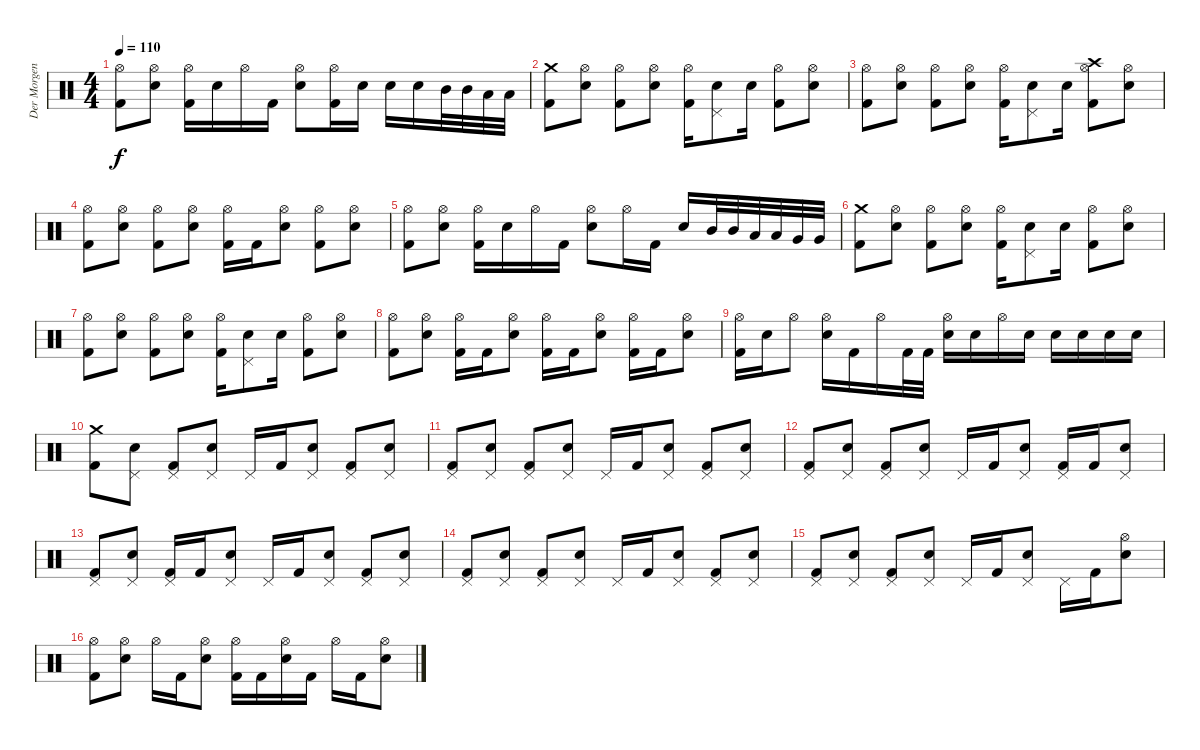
\track ("Der Morgenstern" "Der Morgen") {instrument percussion}
\staff {score}
\articulation defaults
\ts (4 4)
\tempo 110
\clef neutral
\ks c
("Hi-Hat (open)" "Kick (hit) 2").8{dy f} ("Hi-Hat (open)" "Electric Snare (hit)").8 ("Hi-Hat (open)" "Kick (hit) 2").16 "Electric Snare (hit)".16 "Hi-Hat (open)".16 "Kick (hit) 2".16 ("Hi-Hat (open)" "Electric Snare (hit)").8 ("Hi-Hat (open)" "Kick (hit) 2").16 "Electric Snare (hit)".16 "Electric Snare (hit)".16 "Electric Snare (hit)".16 "Mid Tom (hit)".32 "Mid Tom (hit)".32 "Low Tom (hit)".32 "Low Tom (hit)".32 |
("Crash medium (hit)" "Kick (hit) 2").8 ("Hi-Hat (open)" "Electric Snare (hit)").8 ("Hi-Hat (open)" "Kick (hit) 2").8 ("Hi-Hat (open)" "Electric Snare (hit)").8 ("Hi-Hat (open)" "Kick (hit) 2").16 ("Pedal Hi-Hat (hit)" "Electric Snare (hit)").8 "Electric Snare (hit)".16 ("Hi-Hat (open)" "Kick (hit) 2").8 ("Hi-Hat (open)" "Electric Snare (hit)").8 |
("Hi-Hat (open)" "Kick (hit) 2").8 ("Hi-Hat (open)" "Electric Snare (hit)").8 ("Hi-Hat (open)" "Kick (hit) 2").8 ("Hi-Hat (open)" "Electric Snare (hit)").8 ("Hi-Hat (open)" "Kick (hit) 2").16 ("Pedal Hi-Hat (hit)" "Electric Snare (hit)").8 "Electric Snare (hit)".16 ("Crash high (hit)" "Hi-Hat (open)" "Kick (hit) 2").8 ("Hi-Hat (open)" "Electric Snare (hit)").8 |
("Hi-Hat (open)" "Kick (hit) 2").8 ("Hi-Hat (open)" "Electric Snare (hit)").8 ("Hi-Hat (open)" "Kick (hit) 2").8 ("Hi-Hat (open)" "Electric Snare (hit)").8 ("Hi-Hat (open)" "Kick (hit) 2").16 "Kick (hit) 2".16 ("Hi-Hat (open)" "Electric Snare (hit)").8 ("Hi-Hat (open)" "Kick (hit) 2").8 ("Hi-Hat (open)" "Electric Snare (hit)").8 |
("Hi-Hat (open)" "Kick (hit) 2").8 ("Hi-Hat (open)" "Electric Snare (hit)").8 ("Hi-Hat (open)" "Kick (hit) 2").16 "Electric Snare (hit)".16 "Hi-Hat (open)".16 "Kick (hit) 2".16 ("Hi-Hat (open)" "Electric Snare (hit)").8 "Hi-Hat (open)".16 "Kick (hit) 2".16 "Electric Snare (hit)".16 "Mid Tom (hit)".32 "Mid Tom (hit)".32 "Low Tom (hit)".32 "Low Tom (hit)".32 "Very Low Tom (hit)".32 "Very Low Tom (hit)".32 |
("Crash medium (hit)" "Kick (hit) 2").8 ("Hi-Hat (open)" "Electric Snare (hit)").8 ("Hi-Hat (open)" "Kick (hit) 2").8 ("Hi-Hat (open)" "Electric Snare (hit)").8 ("Hi-Hat (open)" "Kick (hit) 2").16 ("Pedal Hi-Hat (hit)" "Electric Snare (hit)").8 "Electric Snare (hit)".16 ("Hi-Hat (open)" "Kick (hit) 2").8 ("Hi-Hat (open)" "Electric Snare (hit)").8 |
("Hi-Hat (open)" "Kick (hit) 2").8 ("Hi-Hat (open)" "Electric Snare (hit)").8 ("Hi-Hat (open)" "Kick (hit) 2").8 ("Hi-Hat (open)" "Electric Snare (hit)").8 ("Hi-Hat (open)" "Kick (hit) 2").16 ("Pedal Hi-Hat (hit)" "Electric Snare (hit)").8 "Electric Snare (hit)".16 ("Hi-Hat (open)" "Kick (hit) 2").8 ("Hi-Hat (open)" "Electric Snare (hit)").8 |
("Hi-Hat (open)" "Kick (hit) 2").8 ("Hi-Hat (open)" "Electric Snare (hit)").8 ("Hi-Hat (open)" "Kick (hit) 2").16 "Kick (hit) 2".16 ("Hi-Hat (open)" "Electric Snare (hit)").8 ("Hi-Hat (open)" "Kick (hit) 2").16 "Kick (hit) 2".16 ("Hi-Hat (open)" "Electric Snare (hit)").8 ("Hi-Hat (open)" "Kick (hit) 2").16 "Kick (hit) 2".16 ("Hi-Hat (open)" "Electric Snare (hit)").8 |
("Hi-Hat (open)" "Kick (hit) 2").16 "Electric Snare (hit)".16 "Hi-Hat (open)".8 ("Hi-Hat (open)" "Electric Snare (hit)").16 "Kick (hit) 2".16 "Hi-Hat (open)".16 "Kick (hit) 2".32 "Kick (hit) 2".32 ("Hi-Hat (open)" "Electric Snare (hit)").16 "Electric Snare (hit)".16 "Hi-Hat (open)".16 "Electric Snare (hit)".16 "Electric Snare (hit)".16 "Electric Snare (hit)".16 "Electric Snare (hit)".16 "Electric Snare (hit)".16 |
("Crash medium (hit)" "Kick (hit) 2").8 ("Pedal Hi-Hat (hit)" "Electric Snare (hit)").8 ("Pedal Hi-Hat (hit)" "Kick (hit) 2").8 ("Pedal Hi-Hat (hit)" "Electric Snare (hit)").8 "Pedal Hi-Hat (hit)".16 "Kick (hit) 2".16 ("Pedal Hi-Hat (hit)" "Electric Snare (hit)").8 ("Pedal Hi-Hat (hit)" "Kick (hit) 2").8 ("Pedal Hi-Hat (hit)" "Electric Snare (hit)").8 |
("Pedal Hi-Hat (hit)" "Kick (hit) 2").8 ("Pedal Hi-Hat (hit)" "Electric Snare (hit)").8 ("Pedal Hi-Hat (hit)" "Kick (hit) 2").8 ("Pedal Hi-Hat (hit)" "Electric Snare (hit)").8 "Pedal Hi-Hat (hit)".16 "Kick (hit) 2".16 ("Pedal Hi-Hat (hit)" "Electric Snare (hit)").8 ("Pedal Hi-Hat (hit)" "Kick (hit) 2").8 ("Pedal Hi-Hat (hit)" "Electric Snare (hit)").8 |
("Pedal Hi-Hat (hit)" "Kick (hit) 2").8 ("Pedal Hi-Hat (hit)" "Electric Snare (hit)").8 ("Pedal Hi-Hat (hit)" "Kick (hit) 2").8 ("Pedal Hi-Hat (hit)" "Electric Snare (hit)").8 "Pedal Hi-Hat (hit)".16 "Kick (hit) 2".16 ("Pedal Hi-Hat (hit)" "Electric Snare (hit)").8 ("Pedal Hi-Hat (hit)" "Kick (hit) 2").16 "Kick (hit) 2".16 ("Pedal Hi-Hat (hit)" "Electric Snare (hit)").8 |
("Pedal Hi-Hat (hit)" "Kick (hit) 2").8 ("Pedal Hi-Hat (hit)" "Electric Snare (hit)").8 ("Pedal Hi-Hat (hit)" "Kick (hit) 2").16 "Kick (hit) 2".16 ("Pedal Hi-Hat (hit)" "Electric Snare (hit)").8 "Pedal Hi-Hat (hit)".16 "Kick (hit) 2".16 ("Pedal Hi-Hat (hit)" "Electric Snare (hit)").8 ("Pedal Hi-Hat (hit)" "Kick (hit) 2").8 ("Pedal Hi-Hat (hit)" "Electric Snare (hit)").8 |
("Pedal Hi-Hat (hit)" "Kick (hit) 2").8 ("Pedal Hi-Hat (hit)" "Electric Snare (hit)").8 ("Pedal Hi-Hat (hit)" "Kick (hit) 2").8 ("Pedal Hi-Hat (hit)" "Electric Snare (hit)").8 "Pedal Hi-Hat (hit)".16 "Kick (hit) 2".16 ("Pedal Hi-Hat (hit)" "Electric Snare (hit)").8 ("Pedal Hi-Hat (hit)" "Kick (hit) 2").8 ("Pedal Hi-Hat (hit)" "Electric Snare (hit)").8 |
("Pedal Hi-Hat (hit)" "Kick (hit) 2").8 ("Pedal Hi-Hat (hit)" "Electric Snare (hit)").8 ("Pedal Hi-Hat (hit)" "Kick (hit) 2").8 ("Pedal Hi-Hat (hit)" "Electric Snare (hit)").8 "Pedal Hi-Hat (hit)".16 "Kick (hit) 2".16 ("Pedal Hi-Hat (hit)" "Electric Snare (hit)").8 "Pedal Hi-Hat (hit)".16 "Kick (hit) 2".16 ("Hi-Hat (open)" "Electric Snare (hit)").8 |
("Hi-Hat (open)" "Kick (hit) 2").8 ("Hi-Hat (open)" "Electric Snare (hit)").8 "Hi-Hat (open)".16 "Kick (hit) 2".16 ("Hi-Hat (open)" "Electric Snare (hit)").8 ("Hi-Hat (open)" "Kick (hit) 2").16 "Kick (hit) 2".16 ("Hi-Hat (open)" "Electric Snare (hit)").16 "Kick (hit) 2".16 "Hi-Hat (open)".16 "Kick (hit) 2".16 ("Hi-Hat (open)" "Electric Snare (hit)").8
